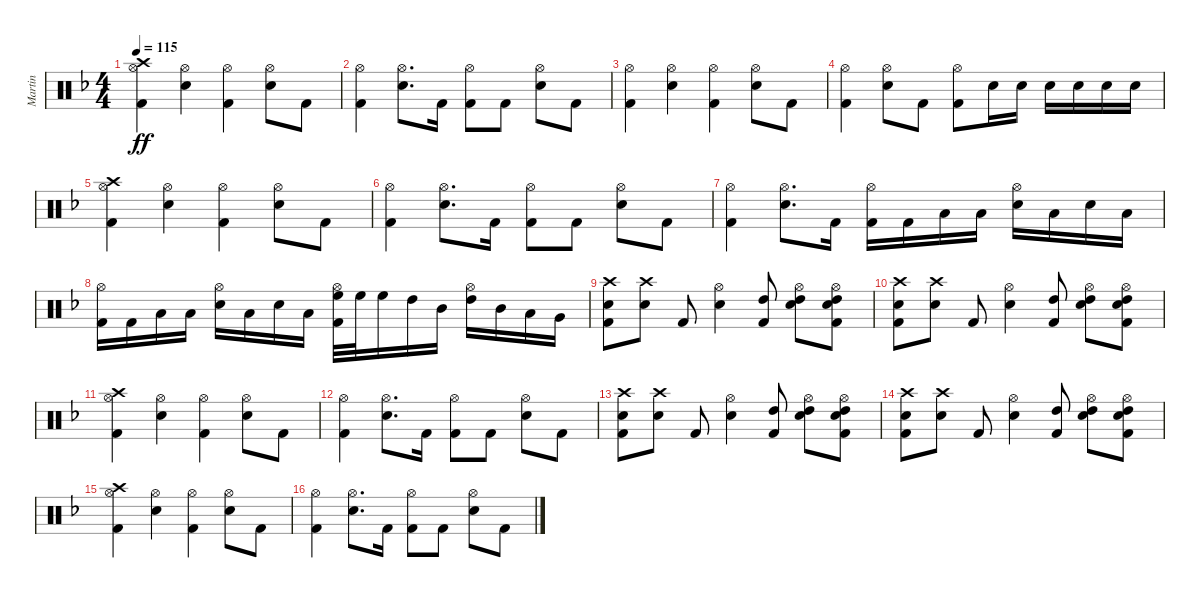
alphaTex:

\track ("Martin" "Martin") {instrument percussion}
\staff {score}
\articulation defaults
\ts (4 4)
\tempo 115
\clef neutral
\ks dminor
("Crash high (hit)" "Hi-Hat (open)" "Kick (hit) 2").4{dy ff} ("Hi-Hat (open)" "Electric Snare (hit)").4 ("Hi-Hat (open)" "Kick (hit) 2").4 ("Hi-Hat (open)" "Electric Snare (hit)").8 "Kick (hit) 2".8 |
("Hi-Hat (open)" "Kick (hit) 2").4 ("Hi-Hat (open)" "Electric Snare (hit)").8{d} "Kick (hit) 2".16 ("Hi-Hat (open)" "Kick (hit) 2").8 "Kick (hit) 2".8 ("Hi-Hat (open)" "Electric Snare (hit)").8 "Kick (hit) 2".8 |
("Hi-Hat (open)" "Kick (hit) 2").4 ("Hi-Hat (open)" "Electric Snare (hit)").4 ("Hi-Hat (open)" "Kick (hit) 2").4 ("Hi-Hat (open)" "Electric Snare (hit)").8 "Kick (hit) 2".8 |
("Hi-Hat (open)" "Kick (hit) 2").4 ("Hi-Hat (open)" "Electric Snare (hit)").8 "Kick (hit) 2".8 ("Hi-Hat (open)" "Kick (hit) 2").8 "Electric Snare (hit)".16 "Electric Snare (hit)".16 "Electric Snare (hit)".16 "Electric Snare (hit)".16 "Electric Snare (hit)".16 "Electric Snare (hit)".16 |
("Crash high (hit)" "Hi-Hat (open)" "Kick (hit) 2").4 ("Hi-Hat (open)" "Electric Snare (hit)").4 ("Hi-Hat (open)" "Kick (hit) 2").4 ("Hi-Hat (open)" "Electric Snare (hit)").8 "Kick (hit) 2".8 |
("Hi-Hat (open)" "Kick (hit) 2").4 ("Hi-Hat (open)" "Electric Snare (hit)").8{d} "Kick (hit) 2".16 ("Hi-Hat (open)" "Kick (hit) 2").8 "Kick (hit) 2".8 ("Hi-Hat (open)" "Electric Snare (hit)").8 "Kick (hit) 2".8 |
("Hi-Hat (open)" "Kick (hit) 2").4 ("Hi-Hat (open)" "Electric Snare (hit)").8{d} "Kick (hit) 2".16 ("Hi-Hat (open)" "Kick (hit) 2").16 "Kick (hit) 2".16 "Low Tom (hit)".16 "Low Tom (hit)".16 ("Hi-Hat (open)" "Electric Snare (hit)").16 "Low Tom (hit)".16 "Electric Snare (hit)".16 "Low Tom (hit)".16 |
("Hi-Hat (open)" "Kick (hit) 2").16 "Kick (hit) 2".16 "Low Tom (hit)".16 "Low Tom (hit)".16 ("Hi-Hat (open)" "Electric Snare (hit)").16 "Low Tom (hit)".16 "Electric Snare (hit)".16 "Low Tom (hit)".16 ("Hi-Hat (open)" "High Floor Tom (hit)" "Kick (hit) 2").32 "High Floor Tom (hit)".32 "High Floor Tom (hit)".16 "High Tom (hit)".16 "Mid Tom (hit)".16 ("Hi-Hat (open)" "High Tom (hit)").16 "Mid Tom (hit)".16 "Low Tom (hit)".16 "Very Low Tom (hit)".16 |
("Crash high (hit)" "Electric Snare (hit)" "Kick (hit) 2").8 ("Crash high (hit)" "Electric Snare (hit)").8 "Kick (hit) 2".8 ("Hi-Hat (open)" "Electric Snare (hit)").4 ("High Tom (hit)" "Kick (hit) 2").8 ("Hi-Hat (open)" "Electric Snare (hit)" "High Tom (hit)").8 ("Hi-Hat (open)" "Electric Snare (hit)" "High Tom (hit)" "Kick (hit) 2").8 |
("Crash high (hit)" "Electric Snare (hit)" "Kick (hit) 2").8 ("Crash high (hit)" "Electric Snare (hit)").8 "Kick (hit) 2".8 ("Hi-Hat (open)" "Electric Snare (hit)").4 ("High Tom (hit)" "Kick (hit) 2").8 ("Hi-Hat (open)" "Electric Snare (hit)" "High Tom (hit)").8 ("Hi-Hat (open)" "Electric Snare (hit)" "High Tom (hit)" "Kick (hit) 2").8 |
("Crash high (hit)" "Hi-Hat (open)" "Kick (hit) 2").4 ("Hi-Hat (open)" "Electric Snare (hit)").4 ("Hi-Hat (open)" "Kick (hit) 2").4 ("Hi-Hat (open)" "Electric Snare (hit)").8 "Kick (hit) 2".8 |
("Hi-Hat (open)" "Kick (hit) 2").4 ("Hi-Hat (open)" "Electric Snare (hit)").8{d} "Kick (hit) 2".16 ("Hi-Hat (open)" "Kick (hit) 2").8 "Kick (hit) 2".8 ("Hi-Hat (open)" "Electric Snare (hit)").8 "Kick (hit) 2".8 |
("Crash high (hit)" "Electric Snare (hit)" "Kick (hit) 2").8 ("Crash high (hit)" "Electric Snare (hit)").8 "Kick (hit) 2".8 ("Hi-Hat (open)" "Electric Snare (hit)").4 ("High Tom (hit)" "Kick (hit) 2").8 ("Hi-Hat (open)" "Electric Snare (hit)" "High Tom (hit)").8 ("Hi-Hat (open)" "Electric Snare (hit)" "High Tom (hit)" "Kick (hit) 2").8 |
("Crash high (hit)" "Electric Snare (hit)" "Kick (hit) 2").8 ("Crash high (hit)" "Electric Snare (hit)").8 "Kick (hit) 2".8 ("Hi-Hat (open)" "Electric Snare (hit)").4 ("High Tom (hit)" "Kick (hit) 2").8 ("Hi-Hat (open)" "Electric Snare (hit)" "High Tom (hit)").8 ("Hi-Hat (open)" "Electric Snare (hit)" "High Tom (hit)" "Kick (hit) 2").8 |
("Crash high (hit)" "Hi-Hat (open)" "Kick (hit) 2").4 ("Hi-Hat (open)" "Electric Snare (hit)").4 ("Hi-Hat (open)" "Kick (hit) 2").4 ("Hi-Hat (open)" "Electric Snare (hit)").8 "Kick (hit) 2".8 |
("Hi-Hat (open)" "Kick (hit) 2").4 ("Hi-Hat (open)" "Electric Snare (hit)").8{d} "Kick (hit) 2".16 ("Hi-Hat (open)" "Kick (hit) 2").8 "Kick (hit) 2".8 ("Hi-Hat (open)" "Electric Snare (hit)").8 "Kick (hit) 2".8
